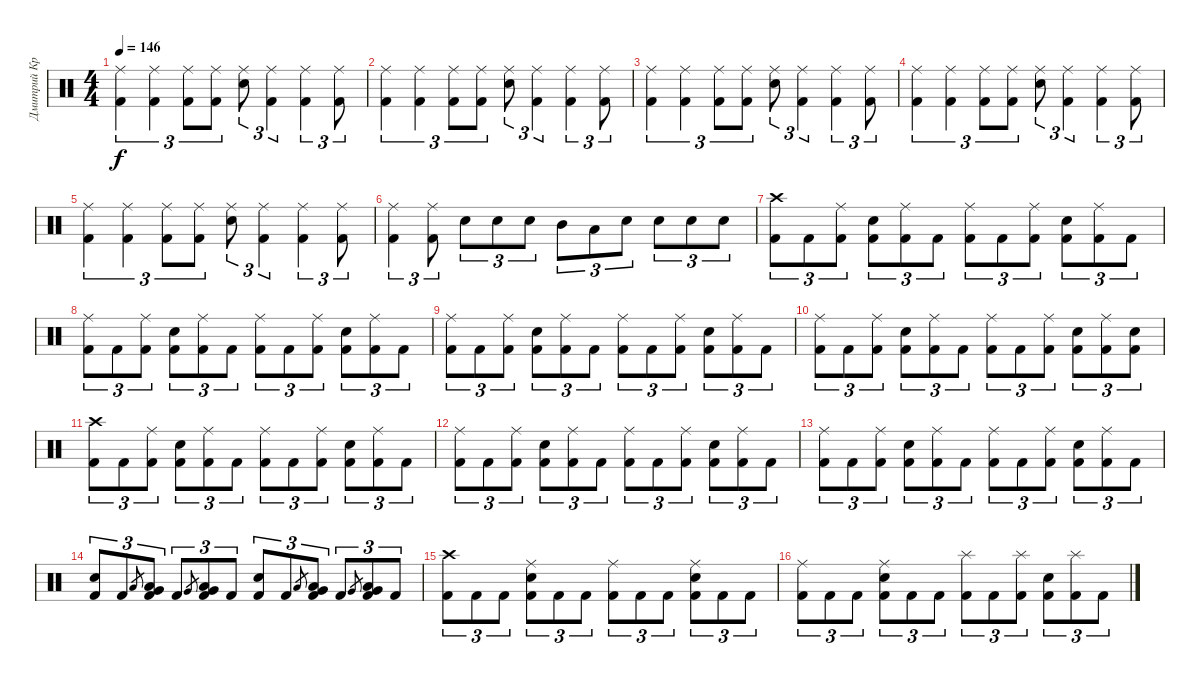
\track ("Дмитрий Кривенков" "Дмитрий Кр") {instrument percussion}
\staff {score}
\articulation defaults
\ts (4 4)
\tempo 146
\clef neutral
\ks c
("Ride (middle)" "Kick (hit) 2").4{tu (3 2) dy f} ("Ride (middle)" "Kick (hit) 2").4{tu (3 2)} ("Ride (middle)" "Kick (hit) 2").8{tu (3 2)} ("Ride (middle)" "Kick (hit) 2").8{tu (3 2)} ("Ride (middle)" "Electric Snare (hit)").8{tu (3 2)} ("Ride (middle)" "Kick (hit) 2").4{tu (3 2)} ("Ride (middle)" "Kick (hit) 2").4{tu (3 2)} ("Ride (middle)" "Kick (hit) 2").8{tu (3 2)} |
("Ride (middle)" "Kick (hit) 2").4{tu (3 2)} ("Ride (middle)" "Kick (hit) 2").4{tu (3 2)} ("Ride (middle)" "Kick (hit) 2").8{tu (3 2)} ("Ride (middle)" "Kick (hit) 2").8{tu (3 2)} ("Ride (middle)" "Electric Snare (hit)").8{tu (3 2)} ("Ride (middle)" "Kick (hit) 2").4{tu (3 2)} ("Ride (middle)" "Kick (hit) 2").4{tu (3 2)} ("Ride (middle)" "Kick (hit) 2").8{tu (3 2)} |
("Ride (middle)" "Kick (hit) 2").4{tu (3 2)} ("Ride (middle)" "Kick (hit) 2").4{tu (3 2)} ("Ride (middle)" "Kick (hit) 2").8{tu (3 2)} ("Ride (middle)" "Kick (hit) 2").8{tu (3 2)} ("Ride (middle)" "Electric Snare (hit)").8{tu (3 2)} ("Ride (middle)" "Kick (hit) 2").4{tu (3 2)} ("Ride (middle)" "Kick (hit) 2").4{tu (3 2)} ("Ride (middle)" "Kick (hit) 2").8{tu (3 2)} |
("Ride (middle)" "Kick (hit) 2").4{tu (3 2)} ("Ride (middle)" "Kick (hit) 2").4{tu (3 2)} ("Ride (middle)" "Kick (hit) 2").8{tu (3 2)} ("Ride (middle)" "Kick (hit) 2").8{tu (3 2)} ("Ride (middle)" "Electric Snare (hit)").8{tu (3 2)} ("Ride (middle)" "Kick (hit) 2").4{tu (3 2)} ("Ride (middle)" "Kick (hit) 2").4{tu (3 2)} ("Ride (middle)" "Kick (hit) 2").8{tu (3 2)} |
("Ride (middle)" "Kick (hit) 2").4{tu (3 2)} ("Ride (middle)" "Kick (hit) 2").4{tu (3 2)} ("Ride (middle)" "Kick (hit) 2").8{tu (3 2)} ("Ride (middle)" "Kick (hit) 2").8{tu (3 2)} ("Ride (middle)" "Electric Snare (hit)").8{tu (3 2)} ("Ride (middle)" "Kick (hit) 2").4{tu (3 2)} ("Ride (middle)" "Kick (hit) 2").4{tu (3 2)} ("Ride (middle)" "Kick (hit) 2").8{tu (3 2)} |
("Ride (middle)" "Kick (hit) 2").4{tu (3 2)} ("Ride (middle)" "Kick (hit) 2").8{tu (3 2)} "Electric Snare (hit)".8{tu (3 2)} "Electric Snare (hit)".8{tu (3 2)} "Electric Snare (hit)".8{tu (3 2)} "Mid Tom (hit)".8{tu (3 2)} "Low Tom (hit)".8{tu (3 2)} "Electric Snare (hit)".8{tu (3 2)} "Electric Snare (hit)".8{tu (3 2)} "Electric Snare (hit)".8{tu (3 2)} "Electric Snare (hit)".8{tu (3 2)} |
("Crash high (hit)" "Kick (hit) 2").8{tu (3 2)} "Kick (hit) 2".8{tu (3 2)} ("Ride (middle)" "Kick (hit) 2").8{tu (3 2)} ("Electric Snare (hit)" "Kick (hit) 2").8{tu (3 2)} ("Ride (middle)" "Kick (hit) 2").8{tu (3 2)} "Kick (hit) 2".8{tu (3 2)} ("Ride (middle)" "Kick (hit) 2").8{tu (3 2)} "Kick (hit) 2".8{tu (3 2)} ("Ride (middle)" "Kick (hit) 2").8{tu (3 2)} ("Electric Snare (hit)" "Kick (hit) 2").8{tu (3 2)} ("Ride (middle)" "Kick (hit) 2").8{tu (3 2)} "Kick (hit) 2".8{tu (3 2)} |
("Ride (middle)" "Kick (hit) 2").8{tu (3 2)} "Kick (hit) 2".8{tu (3 2)} ("Ride (middle)" "Kick (hit) 2").8{tu (3 2)} ("Electric Snare (hit)" "Kick (hit) 2").8{tu (3 2)} ("Ride (middle)" "Kick (hit) 2").8{tu (3 2)} "Kick (hit) 2".8{tu (3 2)} ("Ride (middle)" "Kick (hit) 2").8{tu (3 2)} "Kick (hit) 2".8{tu (3 2)} ("Ride (middle)" "Kick (hit) 2").8{tu (3 2)} ("Electric Snare (hit)" "Kick (hit) 2").8{tu (3 2)} ("Ride (middle)" "Kick (hit) 2").8{tu (3 2)} "Kick (hit) 2".8{tu (3 2)} |
("Ride (middle)" "Kick (hit) 2").8{tu (3 2)} "Kick (hit) 2".8{tu (3 2)} ("Ride (middle)" "Kick (hit) 2").8{tu (3 2)} ("Electric Snare (hit)" "Kick (hit) 2").8{tu (3 2)} ("Ride (middle)" "Kick (hit) 2").8{tu (3 2)} "Kick (hit) 2".8{tu (3 2)} ("Ride (middle)" "Kick (hit) 2").8{tu (3 2)} "Kick (hit) 2".8{tu (3 2)} ("Ride (middle)" "Kick (hit) 2").8{tu (3 2)} ("Electric Snare (hit)" "Kick (hit) 2").8{tu (3 2)} ("Ride (middle)" "Kick (hit) 2").8{tu (3 2)} "Kick (hit) 2".8{tu (3 2)} |
("Ride (middle)" "Kick (hit) 2").8{tu (3 2)} "Kick (hit) 2".8{tu (3 2)} ("Ride (middle)" "Kick (hit) 2").8{tu (3 2)} ("Electric Snare (hit)" "Kick (hit) 2").8{tu (3 2)} ("Ride (middle)" "Kick (hit) 2").8{tu (3 2)} "Kick (hit) 2".8{tu (3 2)} ("Ride (middle)" "Kick (hit) 2").8{tu (3 2)} "Kick (hit) 2".8{tu (3 2)} ("Ride (middle)" "Kick (hit) 2").8{tu (3 2)} ("Electric Snare (hit)" "Kick (hit) 2").8{tu (3 2)} ("Ride (middle)" "Kick (hit) 2").8{tu (3 2)} ("Electric Snare (hit)" "Kick (hit) 2").8{tu (3 2)} |
("Crash high (hit)" "Kick (hit) 2").8{tu (3 2)} "Kick (hit) 2".8{tu (3 2)} ("Ride (middle)" "Kick (hit) 2").8{tu (3 2)} ("Electric Snare (hit)" "Kick (hit) 2").8{tu (3 2)} ("Ride (middle)" "Kick (hit) 2").8{tu (3 2)} "Kick (hit) 2".8{tu (3 2)} ("Ride (middle)" "Kick (hit) 2").8{tu (3 2)} "Kick (hit) 2".8{tu (3 2)} ("Ride (middle)" "Kick (hit) 2").8{tu (3 2)} ("Electric Snare (hit)" "Kick (hit) 2").8{tu (3 2)} ("Ride (middle)" "Kick (hit) 2").8{tu (3 2)} "Kick (hit) 2".8{tu (3 2)} |
("Ride (middle)" "Kick (hit) 2").8{tu (3 2)} "Kick (hit) 2".8{tu (3 2)} ("Ride (middle)" "Kick (hit) 2").8{tu (3 2)} ("Electric Snare (hit)" "Kick (hit) 2").8{tu (3 2)} ("Ride (middle)" "Kick (hit) 2").8{tu (3 2)} "Kick (hit) 2".8{tu (3 2)} ("Ride (middle)" "Kick (hit) 2").8{tu (3 2)} "Kick (hit) 2".8{tu (3 2)} ("Ride (middle)" "Kick (hit) 2").8{tu (3 2)} ("Electric Snare (hit)" "Kick (hit) 2").8{tu (3 2)} ("Ride (middle)" "Kick (hit) 2").8{tu (3 2)} "Kick (hit) 2".8{tu (3 2)} |
("Ride (middle)" "Kick (hit) 2").8{tu (3 2)} "Kick (hit) 2".8{tu (3 2)} ("Ride (middle)" "Kick (hit) 2").8{tu (3 2)} ("Electric Snare (hit)" "Kick (hit) 2").8{tu (3 2)} ("Ride (middle)" "Kick (hit) 2").8{tu (3 2)} "Kick (hit) 2".8{tu (3 2)} ("Ride (middle)" "Kick (hit) 2").8{tu (3 2)} "Kick (hit) 2".8{tu (3 2)} ("Ride (middle)" "Kick (hit) 2").8{tu (3 2)} ("Electric Snare (hit)" "Kick (hit) 2").8{tu (3 2)} ("Ride (middle)" "Kick (hit) 2").8{tu (3 2)} "Kick (hit) 2".8{tu (3 2)} |
("Electric Snare (hit)" "Kick (hit) 2").8{tu (3 2)} "Kick (hit) 2".8{tu (3 2)} "Low Tom (hit)".8{gr} ("Low Tom (hit)" "Very Low Tom (hit)" "Kick (hit) 2").8{tu (3 2)} "Kick (hit) 2".8{tu (3 2)} "Very Low Tom (hit)".8{gr} ("Very Low Tom (hit)" "Low Floor Tom (hit)" "Kick (hit) 2").8{tu (3 2)} "Kick (hit) 2".8{tu (3 2)} ("Electric Snare (hit)" "Kick (hit) 2").8{tu (3 2)} "Kick (hit) 2".8{tu (3 2)} "Low Tom (hit)".8{gr} ("Low Tom (hit)" "Very Low Tom (hit)" "Kick (hit) 2").8{tu (3 2)} "Kick (hit) 2".8{tu (3 2)} "Very Low Tom (hit)".8{gr} ("Very Low Tom (hit)" "Low Floor Tom (hit)" "Kick (hit) 2").8{tu (3 2)} "Kick (hit) 2".8{tu (3 2)} |
("Crash high (hit)" "Kick (hit) 2").8{tu (3 2)} "Kick (hit) 2".8{tu (3 2)} "Kick (hit) 2".8{tu (3 2)} ("Ride (middle)" "Electric Snare (hit)" "Kick (hit) 2").8{tu (3 2)} "Kick (hit) 2".8{tu (3 2)} "Kick (hit) 2".8{tu (3 2)} ("Ride (middle)" "Kick (hit) 2").8{tu (3 2)} "Kick (hit) 2".8{tu (3 2)} "Kick (hit) 2".8{tu (3 2)} ("Ride (middle)" "Electric Snare (hit)" "Kick (hit) 2").8{tu (3 2)} "Kick (hit) 2".8{tu (3 2)} "Kick (hit) 2".8{tu (3 2)} |
("Ride (middle)" "Kick (hit) 2").8{tu (3 2)} "Kick (hit) 2".8{tu (3 2)} "Kick (hit) 2".8{tu (3 2)} ("Ride (middle)" "Electric Snare (hit)" "Kick (hit) 2").8{tu (3 2)} "Kick (hit) 2".8{tu (3 2)} "Kick (hit) 2".8{tu (3 2)} ("Splash (hit)" "Kick (hit) 2").8{tu (3 2)} "Kick (hit) 2".8{tu (3 2)} ("Splash (hit)" "Kick (hit) 2").8{tu (3 2)} ("Electric Snare (hit)" "Kick (hit) 2").8{tu (3 2)} ("Splash (hit)" "Kick (hit) 2").8{tu (3 2)} "Kick (hit) 2".8{tu (3 2)}
